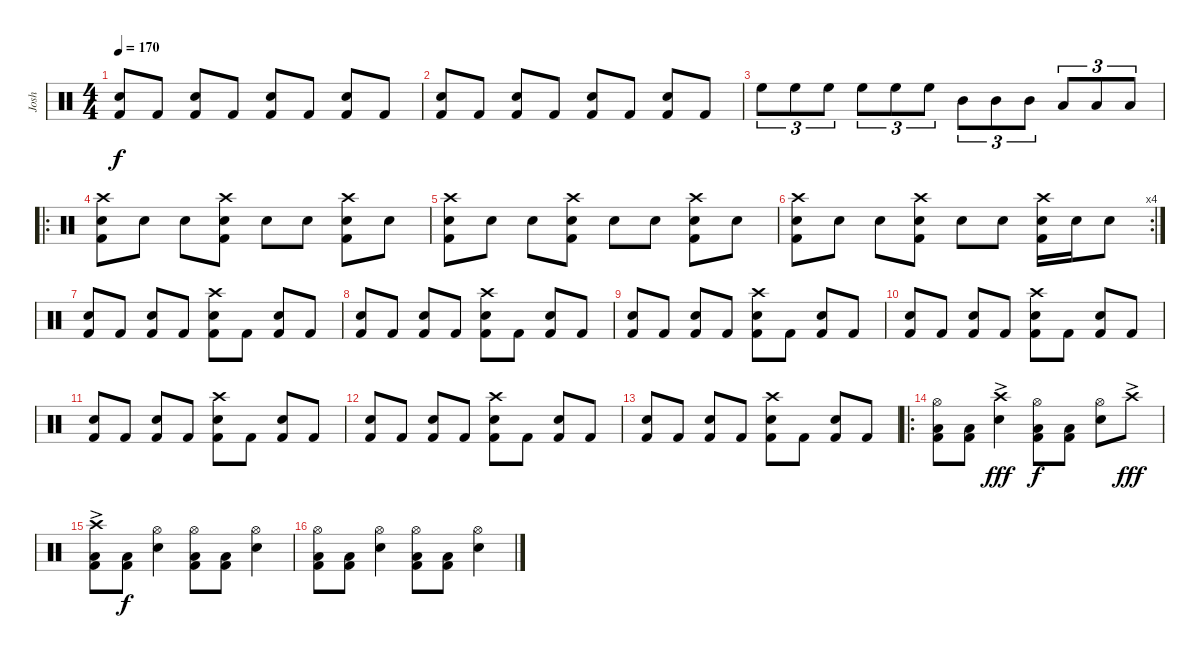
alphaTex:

\track ("Josh" "Josh") {instrument percussion}
\staff {score}
\articulation defaults
\ts (4 4)
\tempo 170
\clef neutral
\ks c
("Snare (hit) 2" "Kick (hit) 2").8{dy f} "Kick (hit) 2".8 ("Snare (hit) 2" "Kick (hit) 2").8 "Kick (hit) 2".8 ("Snare (hit) 2" "Kick (hit) 2").8 "Kick (hit) 2".8 ("Snare (hit) 2" "Kick (hit) 2").8 "Kick (hit) 2".8 |
("Snare (hit) 2" "Kick (hit) 2").8 "Kick (hit) 2".8 ("Snare (hit) 2" "Kick (hit) 2").8 "Kick (hit) 2".8 ("Snare (hit) 2" "Kick (hit) 2").8 "Kick (hit) 2".8 ("Snare (hit) 2" "Kick (hit) 2").8 "Kick (hit) 2".8 |
"High Floor Tom (hit)".8{tu (3 2)} "High Floor Tom (hit)".8{tu (3 2)} "High Floor Tom (hit)".8{tu (3 2)} "High Floor Tom (hit)".8{tu (3 2)} "High Floor Tom (hit)".8{tu (3 2)} "High Floor Tom (hit)".8{tu (3 2)} "Mid Tom (hit)".8{tu (3 2)} "Mid Tom (hit)".8{tu (3 2)} "Mid Tom (hit)".8{tu (3 2)} "Low Tom (hit)".8{tu (3 2)} "Low Tom (hit)".8{tu (3 2)} "Low Tom (hit)".8{tu (3 2)} |
\ro
("Crash high (hit)" "Snare (hit) 2" "Kick (hit) 2").8 "Snare (hit) 2".8 "Snare (hit) 2".8 ("Crash high (hit)" "Snare (hit) 2" "Kick (hit) 2").8 "Snare (hit) 2".8 "Snare (hit) 2".8 ("Crash high (hit)" "Snare (hit) 2" "Kick (hit) 2").8 "Snare (hit) 2".8 |
("Crash high (hit)" "Snare (hit) 2" "Kick (hit) 2").8 "Snare (hit) 2".8 "Snare (hit) 2".8 ("Crash high (hit)" "Snare (hit) 2" "Kick (hit) 2").8 "Snare (hit) 2".8 "Snare (hit) 2".8 ("Crash high (hit)" "Snare (hit) 2" "Kick (hit) 2").8 "Snare (hit) 2".8 |
\rc 4
("Crash high (hit)" "Snare (hit) 2" "Kick (hit) 2").8 "Snare (hit) 2".8 "Snare (hit) 2".8 ("Crash high (hit)" "Snare (hit) 2" "Kick (hit) 2").8 "Snare (hit) 2".8 "Snare (hit) 2".8 ("Crash high (hit)" "Snare (hit) 2" "Kick (hit) 2").16 "Snare (hit) 2".16 "Snare (hit) 2".8 |
("Snare (hit) 2" "Kick (hit) 2").8 "Kick (hit) 2".8 ("Snare (hit) 2" "Kick (hit) 2").8 "Kick (hit) 2".8 ("Crash high (hit)" "Snare (hit) 2" "Kick (hit) 2").8 "Kick (hit) 2".8 ("Snare (hit) 2" "Kick (hit) 2").8 "Kick (hit) 2".8 |
("Snare (hit) 2" "Kick (hit) 2").8 "Kick (hit) 2".8 ("Snare (hit) 2" "Kick (hit) 2").8 "Kick (hit) 2".8 ("Crash high (hit)" "Snare (hit) 2" "Kick (hit) 2").8 "Kick (hit) 2".8 ("Snare (hit) 2" "Kick (hit) 2").8 "Kick (hit) 2".8 |
("Snare (hit) 2" "Kick (hit) 2").8 "Kick (hit) 2".8 ("Snare (hit) 2" "Kick (hit) 2").8 "Kick (hit) 2".8 ("Crash high (hit)" "Snare (hit) 2" "Kick (hit) 2").8 "Kick (hit) 2".8 ("Snare (hit) 2" "Kick (hit) 2").8 "Kick (hit) 2".8 |
("Snare (hit) 2" "Kick (hit) 2").8 "Kick (hit) 2".8 ("Snare (hit) 2" "Kick (hit) 2").8 "Kick (hit) 2".8 ("Crash high (hit)" "Snare (hit) 2" "Kick (hit) 2").8 "Kick (hit) 2".8 ("Snare (hit) 2" "Kick (hit) 2").8 "Kick (hit) 2".8 |
("Snare (hit) 2" "Kick (hit) 2").8 "Kick (hit) 2".8 ("Snare (hit) 2" "Kick (hit) 2").8 "Kick (hit) 2".8 ("Crash high (hit)" "Snare (hit) 2" "Kick (hit) 2").8 "Kick (hit) 2".8 ("Snare (hit) 2" "Kick (hit) 2").8 "Kick (hit) 2".8 |
("Snare (hit) 2" "Kick (hit) 2").8 "Kick (hit) 2".8 ("Snare (hit) 2" "Kick (hit) 2").8 "Kick (hit) 2".8 ("Crash high (hit)" "Snare (hit) 2" "Kick (hit) 2").8 "Kick (hit) 2".8 ("Snare (hit) 2" "Kick (hit) 2").8 "Kick (hit) 2".8 |
("Snare (hit) 2" "Kick (hit) 2").8 "Kick (hit) 2".8 ("Snare (hit) 2" "Kick (hit) 2").8 "Kick (hit) 2".8 ("Crash high (hit)" "Snare (hit) 2" "Kick (hit) 2").8 "Kick (hit) 2".8 ("Snare (hit) 2" "Kick (hit) 2").8 "Kick (hit) 2".8 |
\ro
("Hi-Hat (open)" "Low Tom (hit)" "Kick (hit) 2").8 ("Low Tom (hit)" "Kick (hit) 2").8 ("Crash high (hit)"{ac} "Snare (hit) 2").4{dy fff} ("Hi-Hat (open)" "Low Tom (hit)" "Kick (hit) 2").8{dy f} ("Low Tom (hit)" "Kick (hit) 2").8 ("Hi-Hat (open)" "Snare (hit) 2").8 "Crash high (hit)"{ac}.8{dy fff} |
("Crash high (hit)"{ac} "Low Tom (hit)" "Kick (hit) 2").8 ("Low Tom (hit)" "Kick (hit) 2").8{dy f} ("Hi-Hat (open)" "Snare (hit) 2").4 ("Hi-Hat (open)" "Low Tom (hit)" "Kick (hit) 2").8 ("Low Tom (hit)" "Kick (hit) 2").8 ("Hi-Hat (open)" "Snare (hit) 2").4 |
("Hi-Hat (open)" "Low Tom (hit)" "Kick (hit) 2").8 ("Low Tom (hit)" "Kick (hit) 2").8 ("Hi-Hat (open)" "Snare (hit) 2").4 ("Hi-Hat (open)" "Low Tom (hit)" "Kick (hit) 2").8 ("Low Tom (hit)" "Kick (hit) 2").8 ("Hi-Hat (open)" "Snare (hit) 2").4
